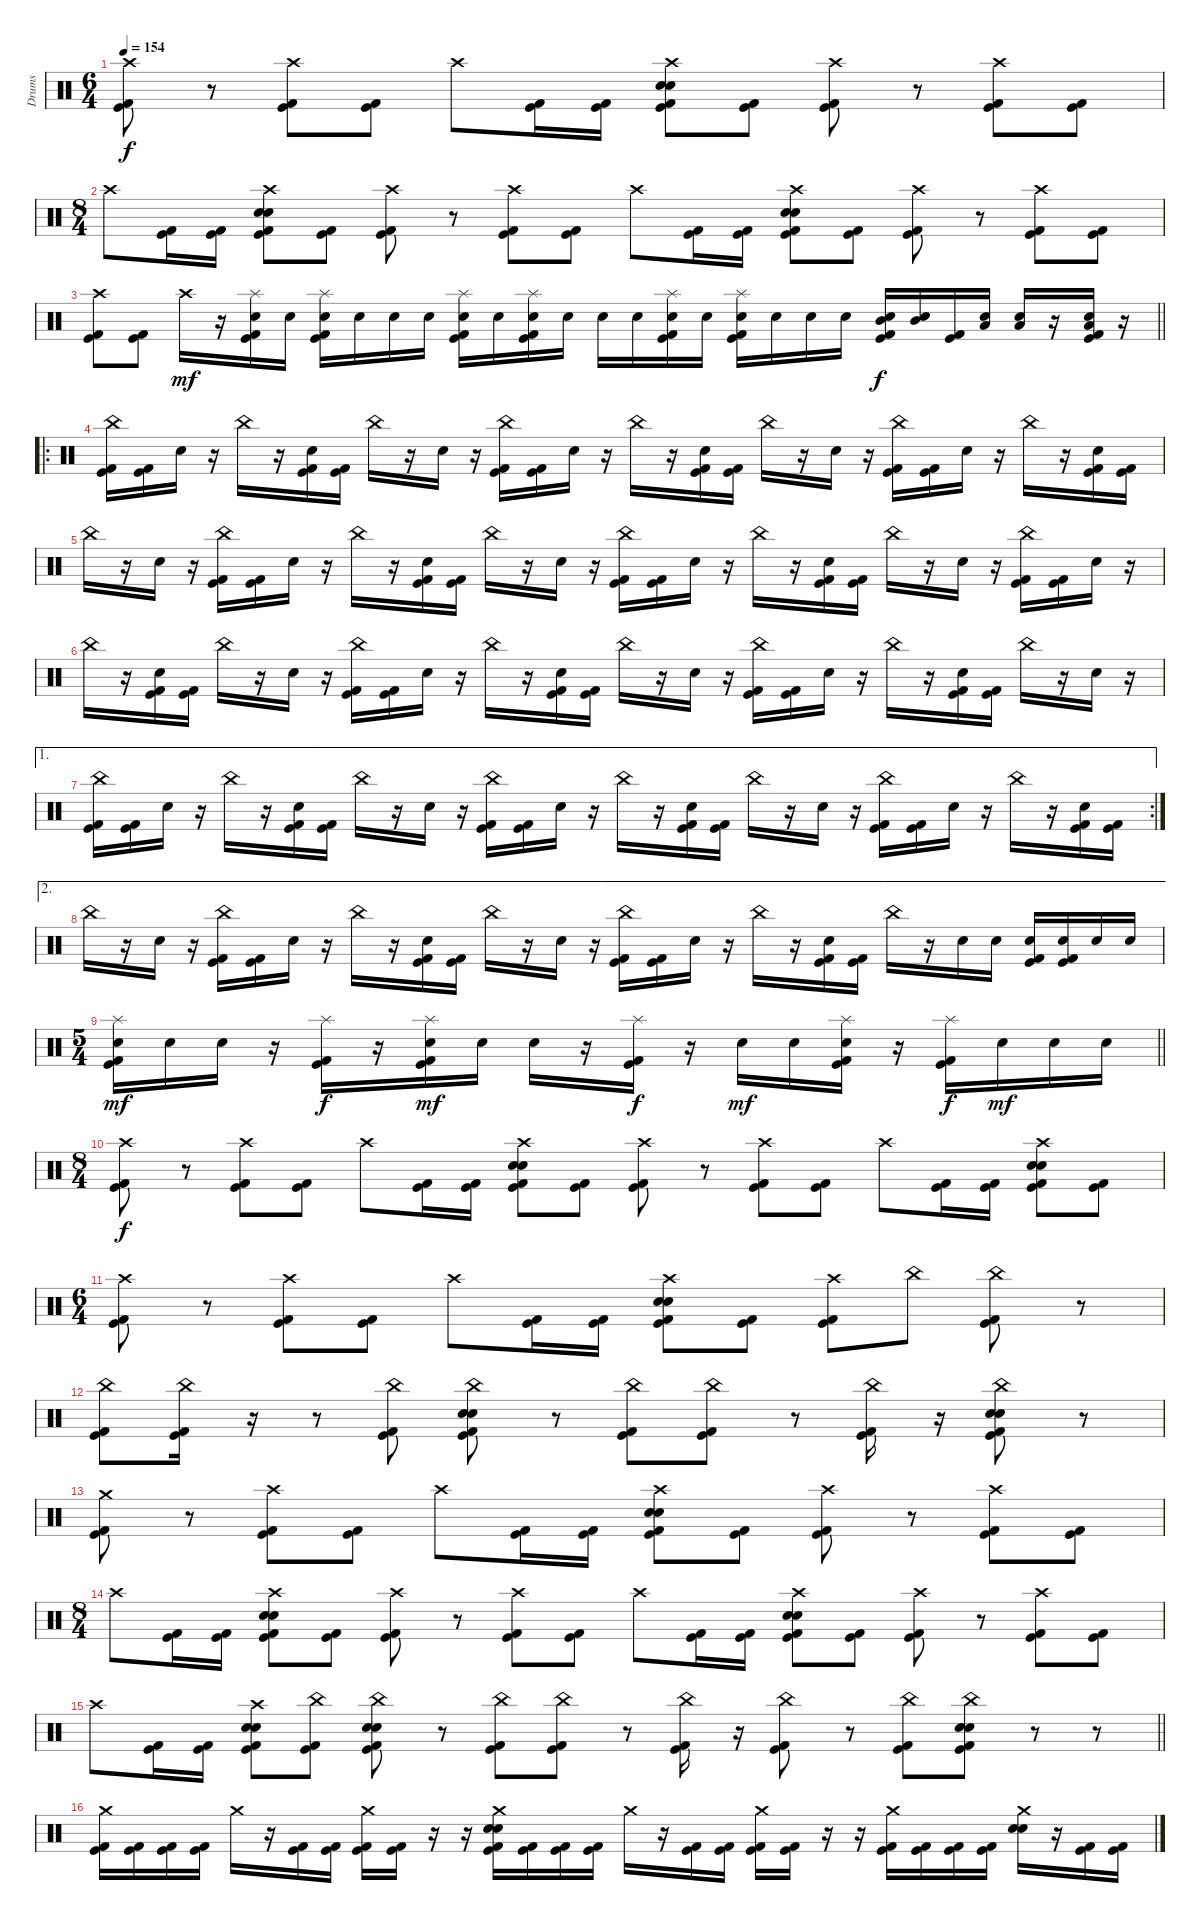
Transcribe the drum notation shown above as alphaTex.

\track ("Drums" "Drums") {instrument percussion}
\staff {score}
\articulation defaults
\ts (6 4)
\tempo 154
\clef neutral
\ks c
("Crash high (hit)" "Kick (hit)" "Kick (hit) 2").8{dy f} r.8 ("Crash high (hit)" "Kick (hit)" "Kick (hit) 2").8 ("Kick (hit)" "Kick (hit) 2").8 "Crash high (hit)".8 ("Kick (hit)" "Kick (hit) 2").16 ("Kick (hit)" "Kick (hit) 2").16 ("Crash high (hit)" "Snare (hit) 2" "Electric Snare (hit)" "Kick (hit)" "Kick (hit) 2").8 ("Kick (hit)" "Kick (hit) 2").8 ("Crash high (hit)" "Kick (hit)" "Kick (hit) 2").8 r.8 ("Crash high (hit)" "Kick (hit)" "Kick (hit) 2").8 ("Kick (hit)" "Kick (hit) 2").8 |
\ts (8 4)
"Crash high (hit)".8 ("Kick (hit)" "Kick (hit) 2").16 ("Kick (hit)" "Kick (hit) 2").16 ("Crash high (hit)" "Snare (hit) 2" "Electric Snare (hit)" "Kick (hit)" "Kick (hit) 2").8 ("Kick (hit)" "Kick (hit) 2").8 ("Crash high (hit)" "Kick (hit)" "Kick (hit) 2").8 r.8 ("Crash high (hit)" "Kick (hit)" "Kick (hit) 2").8 ("Kick (hit)" "Kick (hit) 2").8 "Crash high (hit)".8 ("Kick (hit)" "Kick (hit) 2").16 ("Kick (hit)" "Kick (hit) 2").16 ("Crash high (hit)" "Snare (hit) 2" "Electric Snare (hit)" "Kick (hit)" "Kick (hit) 2").8 ("Kick (hit)" "Kick (hit) 2").8 ("Crash high (hit)" "Kick (hit)" "Kick (hit) 2").8 r.8 ("Crash high (hit)" "Kick (hit)" "Kick (hit) 2").8 ("Kick (hit)" "Kick (hit) 2").8 |
\barLineRight lightlight
("Crash high (hit)" "Kick (hit)" "Kick (hit) 2").8 ("Kick (hit)" "Kick (hit) 2").8 "Crash high (hit)".16{dy mf} r.16 ("Splash (hit)" "Snare (hit) 2" "Kick (hit)" "Kick (hit) 2").16 "Snare (hit) 2".16 ("Splash (hit)" "Snare (hit) 2" "Kick (hit)" "Kick (hit) 2").16 "Snare (hit) 2".16 "Snare (hit) 2".16 "Snare (hit) 2".16 ("Splash (hit)" "Snare (hit) 2" "Kick (hit)" "Kick (hit) 2").16 "Snare (hit) 2".16 ("Splash (hit)" "Snare (hit) 2" "Kick (hit)" "Kick (hit) 2").16 "Snare (hit) 2".16 "Snare (hit) 2".16 "Snare (hit) 2".16 ("Splash (hit)" "Snare (hit) 2" "Kick (hit)" "Kick (hit) 2").16 "Snare (hit) 2".16 ("Splash (hit)" "Snare (hit) 2" "Kick (hit)" "Kick (hit) 2").16 "Snare (hit) 2".16 "Snare (hit) 2".16 "Snare (hit) 2".16 ("Mid Tom (hit)" "Snare (hit) 2" "Kick (hit)" "Kick (hit) 2").16{dy f} ("Mid Tom (hit)" "Snare (hit) 2").16 ("Kick (hit)" "Kick (hit) 2").16 ("Low Tom (hit)" "Snare (hit) 2").16 ("Low Tom (hit)" "Snare (hit) 2").16 r.16 ("Low Floor Tom (hit)" "Snare (hit) 2" "Kick (hit)" "Kick (hit) 2").16 r.16 |
\ro
("China (hit)" "Kick (hit)" "Kick (hit) 2").16 ("Kick (hit)" "Kick (hit) 2").16 "Snare (hit) 2".16 r.16 "China (hit)".16 r.16 ("Snare (hit) 2" "Kick (hit)" "Kick (hit) 2").16 ("Kick (hit)" "Kick (hit) 2").16 "China (hit)".16 r.16 "Snare (hit) 2".16 r.16 ("China (hit)" "Kick (hit)" "Kick (hit) 2").16 ("Kick (hit)" "Kick (hit) 2").16 "Snare (hit) 2".16 r.16 "China (hit)".16 r.16 ("Snare (hit) 2" "Kick (hit)" "Kick (hit) 2").16 ("Kick (hit)" "Kick (hit) 2").16 "China (hit)".16 r.16 "Snare (hit) 2".16 r.16 ("China (hit)" "Kick (hit)" "Kick (hit) 2").16 ("Kick (hit)" "Kick (hit) 2").16 "Snare (hit) 2".16 r.16 "China (hit)".16 r.16 ("Snare (hit) 2" "Kick (hit)" "Kick (hit) 2").16 ("Kick (hit)" "Kick (hit) 2").16 |
"China (hit)".16 r.16 "Snare (hit) 2".16 r.16 ("China (hit)" "Kick (hit)" "Kick (hit) 2").16 ("Kick (hit)" "Kick (hit) 2").16 "Snare (hit) 2".16 r.16 "China (hit)".16 r.16 ("Snare (hit) 2" "Kick (hit)" "Kick (hit) 2").16 ("Kick (hit)" "Kick (hit) 2").16 "China (hit)".16 r.16 "Snare (hit) 2".16 r.16 ("China (hit)" "Kick (hit)" "Kick (hit) 2").16 ("Kick (hit)" "Kick (hit) 2").16 "Snare (hit) 2".16 r.16 "China (hit)".16 r.16 ("Snare (hit) 2" "Kick (hit)" "Kick (hit) 2").16 ("Kick (hit)" "Kick (hit) 2").16 "China (hit)".16 r.16 "Snare (hit) 2".16 r.16 ("China (hit)" "Kick (hit)" "Kick (hit) 2").16 ("Kick (hit)" "Kick (hit) 2").16 "Snare (hit) 2".16 r.16 |
"China (hit)".16 r.16 ("Snare (hit) 2" "Kick (hit)" "Kick (hit) 2").16 ("Kick (hit)" "Kick (hit) 2").16 "China (hit)".16 r.16 "Snare (hit) 2".16 r.16 ("China (hit)" "Kick (hit)" "Kick (hit) 2").16 ("Kick (hit)" "Kick (hit) 2").16 "Snare (hit) 2".16 r.16 "China (hit)".16 r.16 ("Snare (hit) 2" "Kick (hit)" "Kick (hit) 2").16 ("Kick (hit)" "Kick (hit) 2").16 "China (hit)".16 r.16 "Snare (hit) 2".16 r.16 ("China (hit)" "Kick (hit)" "Kick (hit) 2").16 ("Kick (hit)" "Kick (hit) 2").16 "Snare (hit) 2".16 r.16 "China (hit)".16 r.16 ("Snare (hit) 2" "Kick (hit)" "Kick (hit) 2").16 ("Kick (hit)" "Kick (hit) 2").16 "China (hit)".16 r.16 "Snare (hit) 2".16 r.16 |
\ae 1
\rc 2
("China (hit)" "Kick (hit)" "Kick (hit) 2").16 ("Kick (hit)" "Kick (hit) 2").16 "Snare (hit) 2".16 r.16 "China (hit)".16 r.16 ("Snare (hit) 2" "Kick (hit)" "Kick (hit) 2").16 ("Kick (hit)" "Kick (hit) 2").16 "China (hit)".16 r.16 "Snare (hit) 2".16 r.16 ("China (hit)" "Kick (hit)" "Kick (hit) 2").16 ("Kick (hit)" "Kick (hit) 2").16 "Snare (hit) 2".16 r.16 "China (hit)".16 r.16 ("Snare (hit) 2" "Kick (hit)" "Kick (hit) 2").16 ("Kick (hit)" "Kick (hit) 2").16 "China (hit)".16 r.16 "Snare (hit) 2".16 r.16 ("China (hit)" "Kick (hit)" "Kick (hit) 2").16 ("Kick (hit)" "Kick (hit) 2").16 "Snare (hit) 2".16 r.16 "China (hit)".16 r.16 ("Snare (hit) 2" "Kick (hit)" "Kick (hit) 2").16 ("Kick (hit)" "Kick (hit) 2").16 |
\ae 2 "China (hit)".16
r.16 "Snare (hit) 2".16 r.16 ("China (hit)" "Kick (hit)" "Kick (hit) 2").16 ("Kick (hit)" "Kick (hit) 2").16 "Snare (hit) 2".16 r.16 "China (hit)".16 r.16 ("Snare (hit) 2" "Kick (hit)" "Kick (hit) 2").16 ("Kick (hit)" "Kick (hit) 2").16 "China (hit)".16 r.16 "Snare (hit) 2".16 r.16 ("China (hit)" "Kick (hit)" "Kick (hit) 2").16 ("Kick (hit)" "Kick (hit) 2").16 "Snare (hit) 2".16 r.16 "China (hit)".16 r.16 ("Snare (hit) 2" "Kick (hit)" "Kick (hit) 2").16 ("Kick (hit)" "Kick (hit) 2").16 "China (hit)".16 r.16 "Snare (hit) 2".16 "Snare (hit) 2".16 ("Snare (hit) 2" "Kick (hit)" "Kick (hit) 2").16 ("Snare (hit) 2" "Kick (hit)" "Kick (hit) 2").16 "Snare (hit) 2".16 "Snare (hit) 2".16 |
\ts (5 4)
\barLineRight lightlight
("Splash (hit)" "Snare (hit) 2" "Kick (hit)" "Kick (hit) 2").16{dy mf} "Snare (hit) 2".16 "Snare (hit) 2".16 r.16 ("Splash (hit)" "Kick (hit)" "Kick (hit) 2").16{dy f} r.16 ("Splash (hit)" "Snare (hit) 2" "Kick (hit)" "Kick (hit) 2").16{dy mf} "Snare (hit) 2".16 "Snare (hit) 2".16 r.16 ("Splash (hit)" "Kick (hit)" "Kick (hit) 2").16{dy f} r.16 "Snare (hit) 2".16{dy mf} "Snare (hit) 2".16 ("Splash (hit)" "Snare (hit) 2" "Kick (hit)" "Kick (hit) 2").16 r.16 ("Splash (hit)" "Kick (hit)" "Kick (hit) 2").16{dy f} "Snare (hit) 2".16{dy mf} "Snare (hit) 2".16 "Snare (hit) 2".16 |
\ts (8 4)
("Crash high (hit)" "Kick (hit)" "Kick (hit) 2").8{dy f} r.8 ("Crash high (hit)" "Kick (hit)" "Kick (hit) 2").8 ("Kick (hit)" "Kick (hit) 2").8 "Crash high (hit)".8 ("Kick (hit)" "Kick (hit) 2").16 ("Kick (hit)" "Kick (hit) 2").16 ("Crash high (hit)" "Snare (hit) 2" "Electric Snare (hit)" "Kick (hit)" "Kick (hit) 2").8 ("Kick (hit)" "Kick (hit) 2").8 ("Crash high (hit)" "Kick (hit)" "Kick (hit) 2").8 r.8 ("Crash high (hit)" "Kick (hit)" "Kick (hit) 2").8 ("Kick (hit)" "Kick (hit) 2").8 "Crash high (hit)".8 ("Kick (hit)" "Kick (hit) 2").16 ("Kick (hit)" "Kick (hit) 2").16 ("Crash high (hit)" "Snare (hit) 2" "Electric Snare (hit)" "Kick (hit)" "Kick (hit) 2").8 ("Kick (hit)" "Kick (hit) 2").8 |
\ts (6 4)
("Crash high (hit)" "Kick (hit)" "Kick (hit) 2").8 r.8 ("Crash high (hit)" "Kick (hit)" "Kick (hit) 2").8 ("Kick (hit)" "Kick (hit) 2").8 "Crash high (hit)".8 ("Kick (hit)" "Kick (hit) 2").16 ("Kick (hit)" "Kick (hit) 2").16 ("Crash high (hit)" "Snare (hit) 2" "Electric Snare (hit)" "Kick (hit)" "Kick (hit) 2").8 ("Kick (hit)" "Kick (hit) 2").8 ("Crash high (hit)" "Kick (hit)" "Kick (hit) 2").8 "China (hit)".8 ("China (hit)" "Kick (hit)" "Kick (hit) 2").8 r.8 |
("China (hit)" "Kick (hit)" "Kick (hit) 2").8 ("China (hit)" "Kick (hit)" "Kick (hit) 2").16 r.16 r.8 ("China (hit)" "Kick (hit)" "Kick (hit) 2").8 ("China (hit)" "Snare (hit) 2" "Electric Snare (hit)" "Kick (hit)" "Kick (hit) 2").8 r.8 ("China (hit)" "Kick (hit)" "Kick (hit) 2").8 ("China (hit)" "Kick (hit)" "Kick (hit) 2").8 r.8 ("China (hit)" "Kick (hit)" "Kick (hit) 2").16 r.16 ("China (hit)" "Snare (hit) 2" "Electric Snare (hit)" "Kick (hit)" "Kick (hit) 2").8 r.8 |
("Crash medium (hit)" "Kick (hit)" "Kick (hit) 2").8 r.8 ("Crash high (hit)" "Kick (hit)" "Kick (hit) 2").8 ("Kick (hit)" "Kick (hit) 2").8 "Crash high (hit)".8 ("Kick (hit)" "Kick (hit) 2").16 ("Kick (hit)" "Kick (hit) 2").16 ("Crash high (hit)" "Snare (hit) 2" "Electric Snare (hit)" "Kick (hit)" "Kick (hit) 2").8 ("Kick (hit)" "Kick (hit) 2").8 ("Crash high (hit)" "Kick (hit)" "Kick (hit) 2").8 r.8 ("Crash high (hit)" "Kick (hit)" "Kick (hit) 2").8 ("Kick (hit)" "Kick (hit) 2").8 |
\ts (8 4)
"Crash high (hit)".8 ("Kick (hit)" "Kick (hit) 2").16 ("Kick (hit)" "Kick (hit) 2").16 ("Crash high (hit)" "Snare (hit) 2" "Electric Snare (hit)" "Kick (hit)" "Kick (hit) 2").8 ("Kick (hit)" "Kick (hit) 2").8 ("Crash high (hit)" "Kick (hit)" "Kick (hit) 2").8 r.8 ("Crash high (hit)" "Kick (hit)" "Kick (hit) 2").8 ("Kick (hit)" "Kick (hit) 2").8 "Crash high (hit)".8 ("Kick (hit)" "Kick (hit) 2").16 ("Kick (hit)" "Kick (hit) 2").16 ("Crash high (hit)" "Snare (hit) 2" "Electric Snare (hit)" "Kick (hit)" "Kick (hit) 2").8 ("Kick (hit)" "Kick (hit) 2").8 ("Crash high (hit)" "Kick (hit)" "Kick (hit) 2").8 r.8 ("Crash high (hit)" "Kick (hit)" "Kick (hit) 2").8 ("Kick (hit)" "Kick (hit) 2").8 |
\barLineRight lightlight "Crash high (hit)".8
("Kick (hit)" "Kick (hit) 2").16 ("Kick (hit)" "Kick (hit) 2").16 ("Crash high (hit)" "Snare (hit) 2" "Electric Snare (hit)" "Kick (hit)" "Kick (hit) 2").8 ("China (hit)" "Kick (hit)" "Kick (hit) 2").8 ("China (hit)" "Snare (hit) 2" "Electric Snare (hit)" "Kick (hit)" "Kick (hit) 2").8 r.8 ("China (hit)" "Kick (hit)" "Kick (hit) 2").8 ("China (hit)" "Kick (hit)" "Kick (hit) 2").8 r.8 ("China (hit)" "Kick (hit)" "Kick (hit) 2").16 r.16 ("China (hit)" "Kick (hit)" "Kick (hit) 2").8 r.8 ("China (hit)" "Kick (hit)" "Kick (hit) 2").8 ("China (hit)" "Snare (hit) 2" "Electric Snare (hit)" "Kick (hit)" "Kick (hit) 2").8 r.8 r.8 |
("Crash medium (hit)" "Kick (hit)" "Kick (hit) 2").16 ("Kick (hit)" "Kick (hit) 2").16 ("Kick (hit)" "Kick (hit) 2").16 ("Kick (hit)" "Kick (hit) 2").16 "Crash medium (hit)".16 r.16 ("Kick (hit)" "Kick (hit) 2").16 ("Kick (hit)" "Kick (hit) 2").16 ("Crash medium (hit)" "Kick (hit)" "Kick (hit) 2").16 ("Kick (hit)" "Kick (hit) 2").16 r.16 r.16 ("Crash medium (hit)" "Snare (hit) 2" "Electric Snare (hit)" "Kick (hit)" "Kick (hit) 2").16 ("Kick (hit)" "Kick (hit) 2").16 ("Kick (hit)" "Kick (hit) 2").16 ("Kick (hit)" "Kick (hit) 2").16 "Crash medium (hit)".16 r.16 ("Kick (hit)" "Kick (hit) 2").16 ("Kick (hit)" "Kick (hit) 2").16 ("Crash medium (hit)" "Kick (hit)" "Kick (hit) 2").16 ("Kick (hit)" "Kick (hit) 2").16 r.16 r.16 ("Crash medium (hit)" "Kick (hit)" "Kick (hit) 2").16 ("Kick (hit)" "Kick (hit) 2").16 ("Kick (hit)" "Kick (hit) 2").16 ("Kick (hit)" "Kick (hit) 2").16 ("Crash medium (hit)" "Snare (hit) 2" "Electric Snare (hit)").16 r.16 ("Kick (hit)" "Kick (hit) 2").16 ("Kick (hit)" "Kick (hit) 2").16
